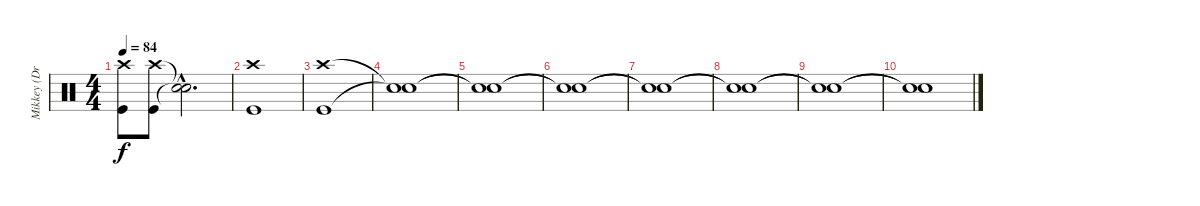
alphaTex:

\track ("Mikkey (Drums)" "Mikkey (Dr") {instrument percussion}
\staff {score}
\articulation defaults
\ts (4 4)
\tempo 84
\clef neutral
\ks c
("Crash high (hit)" "Kick (hit)").8{dy f} ("Crash high (hit)" "Kick (hit)").8 ("Snare (hit)"{hac t} "Snare (hit)"{hac t}).2{d} |
("Crash high (hit)" "Kick (hit)").1 |
("Crash high (hit)" "Kick (hit)").1 |
("Snare (hit)"{t} "Snare (hit)"{t}).1 |
("Snare (hit)"{t} "Snare (hit)"{t}).1 |
("Snare (hit)"{t} "Snare (hit)"{t}).1 |
("Snare (hit)"{t} "Snare (hit)"{t}).1 |
("Snare (hit)"{t} "Snare (hit)"{t}).1 |
("Snare (hit)"{t} "Snare (hit)"{t}).1 |
("Snare (hit)"{t} "Snare (hit)"{t}).1
